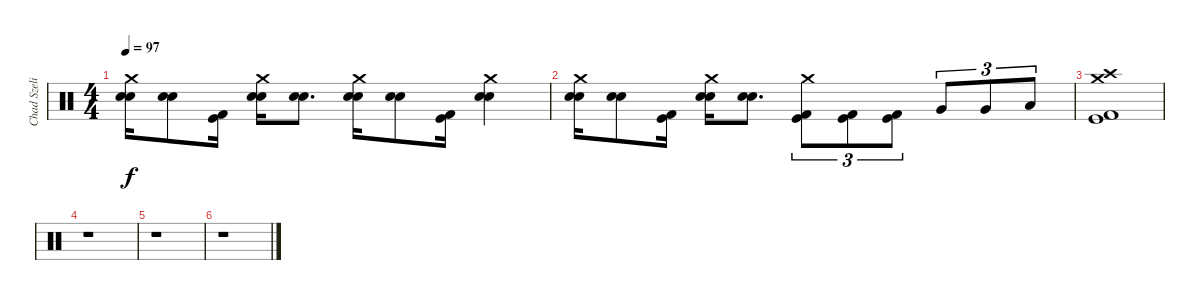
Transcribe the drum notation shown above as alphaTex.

\track ("Chad Szeliga" "Chad Szeli") {instrument percussion}
\staff {score}
\articulation defaults
\ts (4 4)
\tempo 97
\clef neutral
\ks c
("Crash medium (hit)" "Snare (hit) 2" "Snare (hit) 2").16{dy f} ("Snare (hit) 2" "Snare (hit) 2").8 ("Kick (hit) 2" "Kick (hit)").16 ("Crash medium (hit)" "Snare (hit) 2" "Snare (hit) 2").16 ("Snare (hit) 2" "Snare (hit) 2").8{d} ("Crash medium (hit)" "Snare (hit) 2" "Snare (hit) 2").16 ("Snare (hit) 2" "Snare (hit) 2").8 ("Kick (hit) 2" "Kick (hit)").16 ("Crash medium (hit)" "Snare (hit) 2" "Snare (hit) 2").4 |
("Crash medium (hit)" "Snare (hit) 2" "Snare (hit) 2").16 ("Snare (hit) 2" "Snare (hit) 2").8 ("Kick (hit) 2" "Kick (hit)").16 ("Crash medium (hit)" "Snare (hit) 2" "Snare (hit) 2").16 ("Snare (hit) 2" "Snare (hit) 2").8{d} ("Crash medium (hit)" "Kick (hit) 2" "Kick (hit)").8{tu (3 2)} ("Kick (hit) 2" "Kick (hit)").8{tu (3 2)} ("Kick (hit) 2" "Kick (hit)").8{tu (3 2)} "Very Low Tom (hit)".8{tu (3 2)} "Very Low Tom (hit)".8{tu (3 2)} "Low Tom (hit)".8{tu (3 2)} |
("Crash high (hit)" "Kick (hit) 2" "Kick (hit)" "Crash medium (hit)").1 |
r.1 |
r.1 |
r.1
